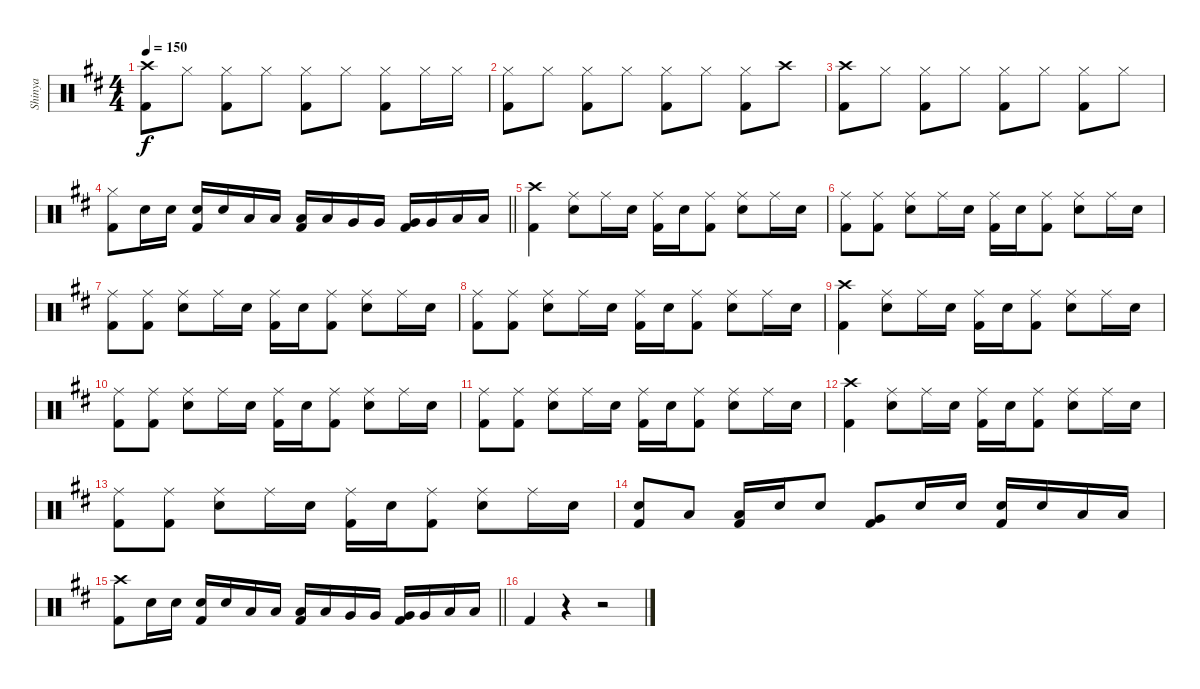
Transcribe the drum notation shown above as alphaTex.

\track ("Shinya" "Shinya") {instrument percussion}
\staff {score}
\articulation defaults
\ts (4 4)
\tempo 150
\clef neutral
\ks d
("Crash high (hit)" "Kick (hit) 2").8{dy f} "Hi-Hat (closed)".8 ("Hi-Hat (closed)" "Kick (hit) 2").8 "Hi-Hat (closed)".8 ("Hi-Hat (closed)" "Kick (hit) 2").8 "Hi-Hat (closed)".8 ("Hi-Hat (closed)" "Kick (hit) 2").8 "Hi-Hat (closed)".16 "Hi-Hat (closed)".16 |
("Hi-Hat (closed)" "Kick (hit) 2").8 "Hi-Hat (closed)".8 ("Hi-Hat (closed)" "Kick (hit) 2").8 "Hi-Hat (closed)".8 ("Hi-Hat (closed)" "Kick (hit) 2").8 "Hi-Hat (closed)".8 ("Hi-Hat (closed)" "Kick (hit) 2").8 "Crash high (hit)".8 |
("Crash high (hit)" "Kick (hit) 2").8 "Hi-Hat (closed)".8 ("Hi-Hat (closed)" "Kick (hit) 2").8 "Hi-Hat (closed)".8 ("Hi-Hat (closed)" "Kick (hit) 2").8 "Hi-Hat (closed)".8 ("Hi-Hat (closed)" "Kick (hit) 2").8 "Hi-Hat (closed)".8 |
\barLineRight lightlight
("Hi-Hat (closed)" "Kick (hit) 2").8 "Electric Snare (hit)".16 "Electric Snare (hit)".16 ("Electric Snare (hit)" "Kick (hit) 2").16 "Electric Snare (hit)".16 "Low Tom (hit)".16 "Low Tom (hit)".16 ("Low Tom (hit)" "Kick (hit) 2").16 "Low Tom (hit)".16 "Very Low Tom (hit)".16 "Very Low Tom (hit)".16 ("Very Low Tom (hit)" "Kick (hit) 2").16 "Very Low Tom (hit)".16 "Low Floor Tom (hit)".16 "Low Floor Tom (hit)".16 |
("Crash high (hit)" "Kick (hit) 2").4 ("Ride (middle)" "Electric Snare (hit)").8 "Ride (middle)".16 "Electric Snare (hit)".16 ("Ride (middle)" "Kick (hit) 2").16 "Electric Snare (hit)".16 ("Ride (middle)" "Kick (hit) 2").8 ("Ride (middle)" "Electric Snare (hit)").8 "Ride (middle)".16 "Electric Snare (hit)".16 |
("Ride (middle)" "Kick (hit) 2").8 ("Ride (middle)" "Kick (hit) 2").8 ("Ride (middle)" "Electric Snare (hit)").8 "Ride (middle)".16 "Electric Snare (hit)".16 ("Ride (middle)" "Kick (hit) 2").16 "Electric Snare (hit)".16 ("Ride (middle)" "Kick (hit) 2").8 ("Ride (middle)" "Electric Snare (hit)").8 "Ride (middle)".16 "Electric Snare (hit)".16 |
("Ride (middle)" "Kick (hit) 2").8 ("Ride (middle)" "Kick (hit) 2").8 ("Ride (middle)" "Electric Snare (hit)").8 "Ride (middle)".16 "Electric Snare (hit)".16 ("Ride (middle)" "Kick (hit) 2").16 "Electric Snare (hit)".16 ("Ride (middle)" "Kick (hit) 2").8 ("Ride (middle)" "Electric Snare (hit)").8 "Ride (middle)".16 "Electric Snare (hit)".16 |
("Ride (middle)" "Kick (hit) 2").8 ("Ride (middle)" "Kick (hit) 2").8 ("Ride (middle)" "Electric Snare (hit)").8 "Ride (middle)".16 "Electric Snare (hit)".16 ("Ride (middle)" "Kick (hit) 2").16 "Electric Snare (hit)".16 ("Ride (middle)" "Kick (hit) 2").8 ("Ride (middle)" "Electric Snare (hit)").8 "Ride (middle)".16 "Electric Snare (hit)".16 |
("Crash high (hit)" "Kick (hit) 2").4 ("Ride (middle)" "Electric Snare (hit)").8 "Ride (middle)".16 "Electric Snare (hit)".16 ("Ride (middle)" "Kick (hit) 2").16 "Electric Snare (hit)".16 ("Ride (middle)" "Kick (hit) 2").8 ("Ride (middle)" "Electric Snare (hit)").8 "Ride (middle)".16 "Electric Snare (hit)".16 |
("Ride (middle)" "Kick (hit) 2").8 ("Ride (middle)" "Kick (hit) 2").8 ("Ride (middle)" "Electric Snare (hit)").8 "Ride (middle)".16 "Electric Snare (hit)".16 ("Ride (middle)" "Kick (hit) 2").16 "Electric Snare (hit)".16 ("Ride (middle)" "Kick (hit) 2").8 ("Ride (middle)" "Electric Snare (hit)").8 "Ride (middle)".16 "Electric Snare (hit)".16 |
("Ride (middle)" "Kick (hit) 2").8 ("Ride (middle)" "Kick (hit) 2").8 ("Ride (middle)" "Electric Snare (hit)").8 "Ride (middle)".16 "Electric Snare (hit)".16 ("Ride (middle)" "Kick (hit) 2").16 "Electric Snare (hit)".16 ("Ride (middle)" "Kick (hit) 2").8 ("Ride (middle)" "Electric Snare (hit)").8 "Ride (middle)".16 "Electric Snare (hit)".16 |
("Crash high (hit)" "Kick (hit) 2").4 ("Ride (middle)" "Electric Snare (hit)").8 "Ride (middle)".16 "Electric Snare (hit)".16 ("Ride (middle)" "Kick (hit) 2").16 "Electric Snare (hit)".16 ("Ride (middle)" "Kick (hit) 2").8 ("Ride (middle)" "Electric Snare (hit)").8 "Ride (middle)".16 "Electric Snare (hit)".16 |
("Ride (middle)" "Kick (hit) 2").8 ("Ride (middle)" "Kick (hit) 2").8 ("Ride (middle)" "Electric Snare (hit)").8 "Ride (middle)".16 "Electric Snare (hit)".16 ("Ride (middle)" "Kick (hit) 2").16 "Electric Snare (hit)".16 ("Ride (middle)" "Kick (hit) 2").8 ("Ride (middle)" "Electric Snare (hit)").8 "Ride (middle)".16 "Electric Snare (hit)".16 |
("Electric Snare (hit)" "Kick (hit) 2").8 "Low Tom (hit)".8 ("Low Tom (hit)" "Kick (hit) 2").16 "Electric Snare (hit)".16 "Electric Snare (hit)".8 ("Very Low Tom (hit)" "Kick (hit) 2").8 "Electric Snare (hit)".16 "Electric Snare (hit)".16 ("Electric Snare (hit)" "Kick (hit) 2").16 "Electric Snare (hit)".16 "Low Tom (hit)".16 "Low Tom (hit)".16 |
\barLineRight lightlight
("Crash high (hit)" "Kick (hit) 2").8 "Electric Snare (hit)".16 "Electric Snare (hit)".16 ("Electric Snare (hit)" "Kick (hit) 2").16 "Electric Snare (hit)".16 "Low Tom (hit)".16 "Low Tom (hit)".16 ("Low Tom (hit)" "Kick (hit) 2").16 "Low Tom (hit)".16 "Very Low Tom (hit)".16 "Very Low Tom (hit)".16 ("Very Low Tom (hit)" "Kick (hit) 2").16 "Very Low Tom (hit)".16 "Low Floor Tom (hit)".16 "Low Floor Tom (hit)".16 |
"Kick (hit) 2".4 r.4 r.2
